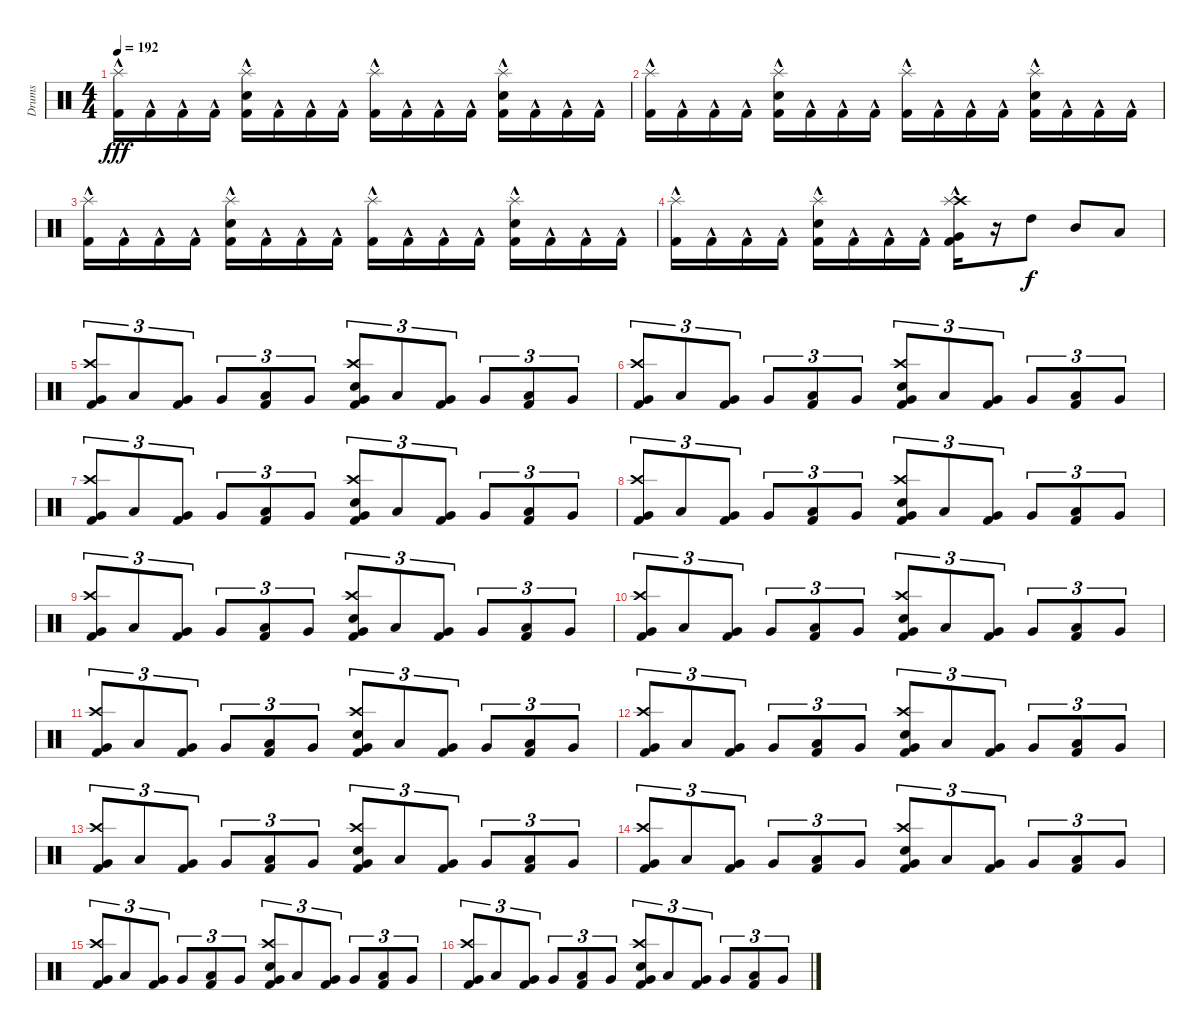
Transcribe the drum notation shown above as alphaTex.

\track ("Drums" "Drums") {instrument percussion}
\staff {score}
\articulation defaults
\ts (4 4)
\tempo 192
\clef neutral
\ks c
("Splash (hit)" "Kick (hit) 2"{hac}).16{dy fff} "Kick (hit) 2"{hac}.16 "Kick (hit) 2"{hac}.16 "Kick (hit) 2"{hac}.16 ("Splash (hit)" "Kick (hit) 2"{hac} "Electric Snare (hit)").16 "Kick (hit) 2"{hac}.16 "Kick (hit) 2"{hac}.16 "Kick (hit) 2"{hac}.16 ("Splash (hit)" "Kick (hit) 2"{hac}).16 "Kick (hit) 2"{hac}.16 "Kick (hit) 2"{hac}.16 "Kick (hit) 2"{hac}.16 ("Splash (hit)" "Kick (hit) 2"{hac} "Electric Snare (hit)").16 "Kick (hit) 2"{hac}.16 "Kick (hit) 2"{hac}.16 "Kick (hit) 2"{hac}.16 |
("Splash (hit)" "Kick (hit) 2"{hac}).16 "Kick (hit) 2"{hac}.16 "Kick (hit) 2"{hac}.16 "Kick (hit) 2"{hac}.16 ("Splash (hit)" "Kick (hit) 2"{hac} "Electric Snare (hit)").16 "Kick (hit) 2"{hac}.16 "Kick (hit) 2"{hac}.16 "Kick (hit) 2"{hac}.16 ("Splash (hit)" "Kick (hit) 2"{hac}).16 "Kick (hit) 2"{hac}.16 "Kick (hit) 2"{hac}.16 "Kick (hit) 2"{hac}.16 ("Splash (hit)" "Kick (hit) 2"{hac} "Electric Snare (hit)").16 "Kick (hit) 2"{hac}.16 "Kick (hit) 2"{hac}.16 "Kick (hit) 2"{hac}.16 |
("Splash (hit)" "Kick (hit) 2"{hac}).16 "Kick (hit) 2"{hac}.16 "Kick (hit) 2"{hac}.16 "Kick (hit) 2"{hac}.16 ("Splash (hit)" "Kick (hit) 2"{hac} "Electric Snare (hit)").16 "Kick (hit) 2"{hac}.16 "Kick (hit) 2"{hac}.16 "Kick (hit) 2"{hac}.16 ("Splash (hit)" "Kick (hit) 2"{hac}).16 "Kick (hit) 2"{hac}.16 "Kick (hit) 2"{hac}.16 "Kick (hit) 2"{hac}.16 ("Splash (hit)" "Kick (hit) 2"{hac} "Electric Snare (hit)").16 "Kick (hit) 2"{hac}.16 "Kick (hit) 2"{hac}.16 "Kick (hit) 2"{hac}.16 |
("Splash (hit)" "Kick (hit) 2"{hac}).16 "Kick (hit) 2"{hac}.16 "Kick (hit) 2"{hac}.16 "Kick (hit) 2"{hac}.16 ("Splash (hit)" "Kick (hit) 2"{hac} "Electric Snare (hit)").16 "Kick (hit) 2"{hac}.16 "Kick (hit) 2"{hac}.16 "Kick (hit) 2"{hac}.16 ("Crash high (hit)" "Splash (hit)" "Kick (hit) 2"{hac} "Very Low Tom (hit)").16 r.16 "High Tom (hit)".8{dy f} "Mid Tom (hit)".8 "Low Floor Tom (hit)".8 |
("Crash high (hit)" "Kick (hit) 2" "Very Low Tom (hit)").8{tu (3 2)} "Low Tom (hit)".8{tu (3 2)} ("Kick (hit) 2" "Very Low Tom (hit)").8{tu (3 2)} "Very Low Tom (hit)".8{tu (3 2)} ("Kick (hit) 2" "Low Tom (hit)").8{tu (3 2)} "Very Low Tom (hit)".8{tu (3 2)} ("Crash high (hit)" "Electric Snare (hit)" "Kick (hit) 2" "Very Low Tom (hit)").8{tu (3 2)} "Low Tom (hit)".8{tu (3 2)} ("Kick (hit) 2" "Very Low Tom (hit)").8{tu (3 2)} "Very Low Tom (hit)".8{tu (3 2)} ("Kick (hit) 2" "Low Tom (hit)").8{tu (3 2)} "Very Low Tom (hit)".8{tu (3 2)} |
("Crash high (hit)" "Kick (hit) 2" "Very Low Tom (hit)").8{tu (3 2)} "Low Tom (hit)".8{tu (3 2)} ("Kick (hit) 2" "Very Low Tom (hit)").8{tu (3 2)} "Very Low Tom (hit)".8{tu (3 2)} ("Kick (hit) 2" "Low Tom (hit)").8{tu (3 2)} "Very Low Tom (hit)".8{tu (3 2)} ("Crash high (hit)" "Electric Snare (hit)" "Kick (hit) 2" "Very Low Tom (hit)").8{tu (3 2)} "Low Tom (hit)".8{tu (3 2)} ("Kick (hit) 2" "Very Low Tom (hit)").8{tu (3 2)} "Very Low Tom (hit)".8{tu (3 2)} ("Kick (hit) 2" "Low Tom (hit)").8{tu (3 2)} "Very Low Tom (hit)".8{tu (3 2)} |
("Crash high (hit)" "Kick (hit) 2" "Very Low Tom (hit)").8{tu (3 2)} "Low Tom (hit)".8{tu (3 2)} ("Kick (hit) 2" "Very Low Tom (hit)").8{tu (3 2)} "Very Low Tom (hit)".8{tu (3 2)} ("Kick (hit) 2" "Low Tom (hit)").8{tu (3 2)} "Very Low Tom (hit)".8{tu (3 2)} ("Crash high (hit)" "Electric Snare (hit)" "Kick (hit) 2" "Very Low Tom (hit)").8{tu (3 2)} "Low Tom (hit)".8{tu (3 2)} ("Kick (hit) 2" "Very Low Tom (hit)").8{tu (3 2)} "Very Low Tom (hit)".8{tu (3 2)} ("Kick (hit) 2" "Low Tom (hit)").8{tu (3 2)} "Very Low Tom (hit)".8{tu (3 2)} |
("Crash high (hit)" "Kick (hit) 2" "Very Low Tom (hit)").8{tu (3 2)} "Low Tom (hit)".8{tu (3 2)} ("Kick (hit) 2" "Very Low Tom (hit)").8{tu (3 2)} "Very Low Tom (hit)".8{tu (3 2)} ("Kick (hit) 2" "Low Tom (hit)").8{tu (3 2)} "Very Low Tom (hit)".8{tu (3 2)} ("Crash high (hit)" "Electric Snare (hit)" "Kick (hit) 2" "Very Low Tom (hit)").8{tu (3 2)} "Low Tom (hit)".8{tu (3 2)} ("Kick (hit) 2" "Very Low Tom (hit)").8{tu (3 2)} "Very Low Tom (hit)".8{tu (3 2)} ("Kick (hit) 2" "Low Tom (hit)").8{tu (3 2)} "Very Low Tom (hit)".8{tu (3 2)} |
("Crash high (hit)" "Kick (hit) 2" "Very Low Tom (hit)").8{tu (3 2)} "Low Tom (hit)".8{tu (3 2)} ("Kick (hit) 2" "Very Low Tom (hit)").8{tu (3 2)} "Very Low Tom (hit)".8{tu (3 2)} ("Kick (hit) 2" "Low Tom (hit)").8{tu (3 2)} "Very Low Tom (hit)".8{tu (3 2)} ("Crash high (hit)" "Electric Snare (hit)" "Kick (hit) 2" "Very Low Tom (hit)").8{tu (3 2)} "Low Tom (hit)".8{tu (3 2)} ("Kick (hit) 2" "Very Low Tom (hit)").8{tu (3 2)} "Very Low Tom (hit)".8{tu (3 2)} ("Kick (hit) 2" "Low Tom (hit)").8{tu (3 2)} "Very Low Tom (hit)".8{tu (3 2)} |
("Crash high (hit)" "Kick (hit) 2" "Very Low Tom (hit)").8{tu (3 2)} "Low Tom (hit)".8{tu (3 2)} ("Kick (hit) 2" "Very Low Tom (hit)").8{tu (3 2)} "Very Low Tom (hit)".8{tu (3 2)} ("Kick (hit) 2" "Low Tom (hit)").8{tu (3 2)} "Very Low Tom (hit)".8{tu (3 2)} ("Crash high (hit)" "Electric Snare (hit)" "Kick (hit) 2" "Very Low Tom (hit)").8{tu (3 2)} "Low Tom (hit)".8{tu (3 2)} ("Kick (hit) 2" "Very Low Tom (hit)").8{tu (3 2)} "Very Low Tom (hit)".8{tu (3 2)} ("Kick (hit) 2" "Low Tom (hit)").8{tu (3 2)} "Very Low Tom (hit)".8{tu (3 2)} |
("Crash high (hit)" "Kick (hit) 2" "Very Low Tom (hit)").8{tu (3 2)} "Low Tom (hit)".8{tu (3 2)} ("Kick (hit) 2" "Very Low Tom (hit)").8{tu (3 2)} "Very Low Tom (hit)".8{tu (3 2)} ("Kick (hit) 2" "Low Tom (hit)").8{tu (3 2)} "Very Low Tom (hit)".8{tu (3 2)} ("Crash high (hit)" "Electric Snare (hit)" "Kick (hit) 2" "Very Low Tom (hit)").8{tu (3 2)} "Low Tom (hit)".8{tu (3 2)} ("Kick (hit) 2" "Very Low Tom (hit)").8{tu (3 2)} "Very Low Tom (hit)".8{tu (3 2)} ("Kick (hit) 2" "Low Tom (hit)").8{tu (3 2)} "Very Low Tom (hit)".8{tu (3 2)} |
("Crash high (hit)" "Kick (hit) 2" "Very Low Tom (hit)").8{tu (3 2)} "Low Tom (hit)".8{tu (3 2)} ("Kick (hit) 2" "Very Low Tom (hit)").8{tu (3 2)} "Very Low Tom (hit)".8{tu (3 2)} ("Kick (hit) 2" "Low Tom (hit)").8{tu (3 2)} "Very Low Tom (hit)".8{tu (3 2)} ("Crash high (hit)" "Electric Snare (hit)" "Kick (hit) 2" "Very Low Tom (hit)").8{tu (3 2)} "Low Tom (hit)".8{tu (3 2)} ("Kick (hit) 2" "Very Low Tom (hit)").8{tu (3 2)} "Very Low Tom (hit)".8{tu (3 2)} ("Kick (hit) 2" "Low Tom (hit)").8{tu (3 2)} "Very Low Tom (hit)".8{tu (3 2)} |
("Crash high (hit)" "Kick (hit) 2" "Very Low Tom (hit)").8{tu (3 2)} "Low Tom (hit)".8{tu (3 2)} ("Kick (hit) 2" "Very Low Tom (hit)").8{tu (3 2)} "Very Low Tom (hit)".8{tu (3 2)} ("Kick (hit) 2" "Low Tom (hit)").8{tu (3 2)} "Very Low Tom (hit)".8{tu (3 2)} ("Crash high (hit)" "Electric Snare (hit)" "Kick (hit) 2" "Very Low Tom (hit)").8{tu (3 2)} "Low Tom (hit)".8{tu (3 2)} ("Kick (hit) 2" "Very Low Tom (hit)").8{tu (3 2)} "Very Low Tom (hit)".8{tu (3 2)} ("Kick (hit) 2" "Low Tom (hit)").8{tu (3 2)} "Very Low Tom (hit)".8{tu (3 2)} |
("Crash high (hit)" "Kick (hit) 2" "Very Low Tom (hit)").8{tu (3 2)} "Low Tom (hit)".8{tu (3 2)} ("Kick (hit) 2" "Very Low Tom (hit)").8{tu (3 2)} "Very Low Tom (hit)".8{tu (3 2)} ("Kick (hit) 2" "Low Tom (hit)").8{tu (3 2)} "Very Low Tom (hit)".8{tu (3 2)} ("Crash high (hit)" "Electric Snare (hit)" "Kick (hit) 2" "Very Low Tom (hit)").8{tu (3 2)} "Low Tom (hit)".8{tu (3 2)} ("Kick (hit) 2" "Very Low Tom (hit)").8{tu (3 2)} "Very Low Tom (hit)".8{tu (3 2)} ("Kick (hit) 2" "Low Tom (hit)").8{tu (3 2)} "Very Low Tom (hit)".8{tu (3 2)} |
("Crash high (hit)" "Kick (hit) 2" "Very Low Tom (hit)").8{tu (3 2)} "Low Tom (hit)".8{tu (3 2)} ("Kick (hit) 2" "Very Low Tom (hit)").8{tu (3 2)} "Very Low Tom (hit)".8{tu (3 2)} ("Kick (hit) 2" "Low Tom (hit)").8{tu (3 2)} "Very Low Tom (hit)".8{tu (3 2)} ("Crash high (hit)" "Electric Snare (hit)" "Kick (hit) 2" "Very Low Tom (hit)").8{tu (3 2)} "Low Tom (hit)".8{tu (3 2)} ("Kick (hit) 2" "Very Low Tom (hit)").8{tu (3 2)} "Very Low Tom (hit)".8{tu (3 2)} ("Kick (hit) 2" "Low Tom (hit)").8{tu (3 2)} "Very Low Tom (hit)".8{tu (3 2)} |
("Crash high (hit)" "Kick (hit) 2" "Very Low Tom (hit)").8{tu (3 2)} "Low Tom (hit)".8{tu (3 2)} ("Kick (hit) 2" "Very Low Tom (hit)").8{tu (3 2)} "Very Low Tom (hit)".8{tu (3 2)} ("Kick (hit) 2" "Low Tom (hit)").8{tu (3 2)} "Very Low Tom (hit)".8{tu (3 2)} ("Crash high (hit)" "Electric Snare (hit)" "Kick (hit) 2" "Very Low Tom (hit)").8{tu (3 2)} "Low Tom (hit)".8{tu (3 2)} ("Kick (hit) 2" "Very Low Tom (hit)").8{tu (3 2)} "Very Low Tom (hit)".8{tu (3 2)} ("Kick (hit) 2" "Low Tom (hit)").8{tu (3 2)} "Very Low Tom (hit)".8{tu (3 2)}
